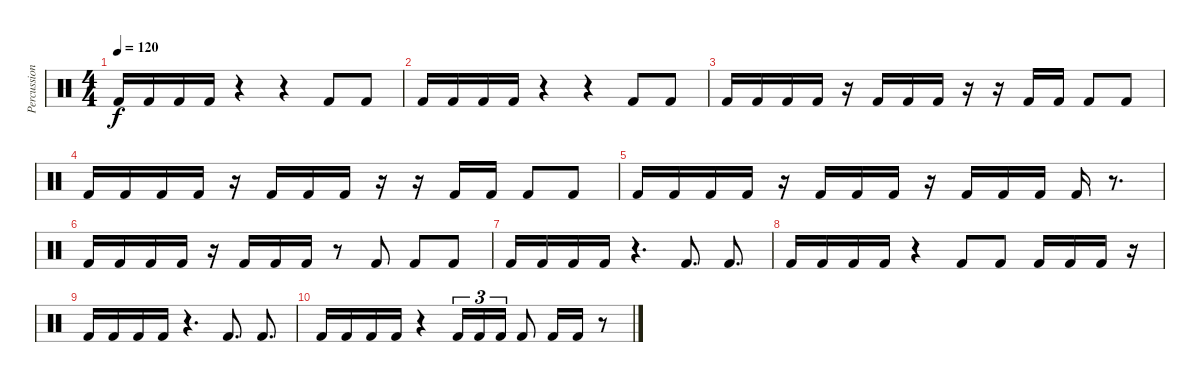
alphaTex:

\track ("Percussion" "Percussion") {instrument percussion}
\staff {score}
\articulation defaults
\ts (4 4)
\tempo 120
\clef neutral
\ks c "Kick (hit) 2".16{dy f} "Kick (hit) 2".16 "Kick (hit) 2".16 "Kick (hit) 2".16
r.4 r.4 "Kick (hit) 2".8 "Kick (hit) 2".8 |
"Kick (hit) 2".16 "Kick (hit) 2".16 "Kick (hit) 2".16 "Kick (hit) 2".16 r.4 r.4 "Kick (hit) 2".8 "Kick (hit) 2".8 |
"Kick (hit) 2".16 "Kick (hit) 2".16 "Kick (hit) 2".16 "Kick (hit) 2".16 r.16 "Kick (hit) 2".16 "Kick (hit) 2".16 "Kick (hit) 2".16 r.16 r.16 "Kick (hit) 2".16 "Kick (hit) 2".16 "Kick (hit) 2".8 "Kick (hit) 2".8 |
"Kick (hit) 2".16 "Kick (hit) 2".16 "Kick (hit) 2".16 "Kick (hit) 2".16 r.16 "Kick (hit) 2".16 "Kick (hit) 2".16 "Kick (hit) 2".16 r.16 r.16 "Kick (hit) 2".16 "Kick (hit) 2".16 "Kick (hit) 2".8 "Kick (hit) 2".8 |
"Kick (hit) 2".16 "Kick (hit) 2".16 "Kick (hit) 2".16 "Kick (hit) 2".16 r.16 "Kick (hit) 2".16 "Kick (hit) 2".16 "Kick (hit) 2".16 r.16 "Kick (hit) 2".16 "Kick (hit) 2".16 "Kick (hit) 2".16 "Kick (hit) 2".16 r.8{d} |
"Kick (hit) 2".16 "Kick (hit) 2".16 "Kick (hit) 2".16 "Kick (hit) 2".16 r.16 "Kick (hit) 2".16 "Kick (hit) 2".16 "Kick (hit) 2".16 r.8 "Kick (hit) 2".8 "Kick (hit) 2".8 "Kick (hit) 2".8 |
"Kick (hit) 2".16 "Kick (hit) 2".16 "Kick (hit) 2".16 "Kick (hit) 2".16 r.4{d} "Kick (hit) 2".8{d} "Kick (hit) 2".8{d} |
"Kick (hit) 2".16 "Kick (hit) 2".16 "Kick (hit) 2".16 "Kick (hit) 2".16 r.4 "Kick (hit) 2".8 "Kick (hit) 2".8 "Kick (hit) 2".16 "Kick (hit) 2".16 "Kick (hit) 2".16 r.16 |
"Kick (hit) 2".16 "Kick (hit) 2".16 "Kick (hit) 2".16 "Kick (hit) 2".16 r.4{d} "Kick (hit) 2".8{d} "Kick (hit) 2".8{d} |
"Kick (hit) 2".16 "Kick (hit) 2".16 "Kick (hit) 2".16 "Kick (hit) 2".16 r.4 "Kick (hit) 2".16{tu (3 2)} "Kick (hit) 2".16{tu (3 2)} "Kick (hit) 2".16{tu (3 2)} "Kick (hit) 2".8 "Kick (hit) 2".16 "Kick (hit) 2".16 r.8
